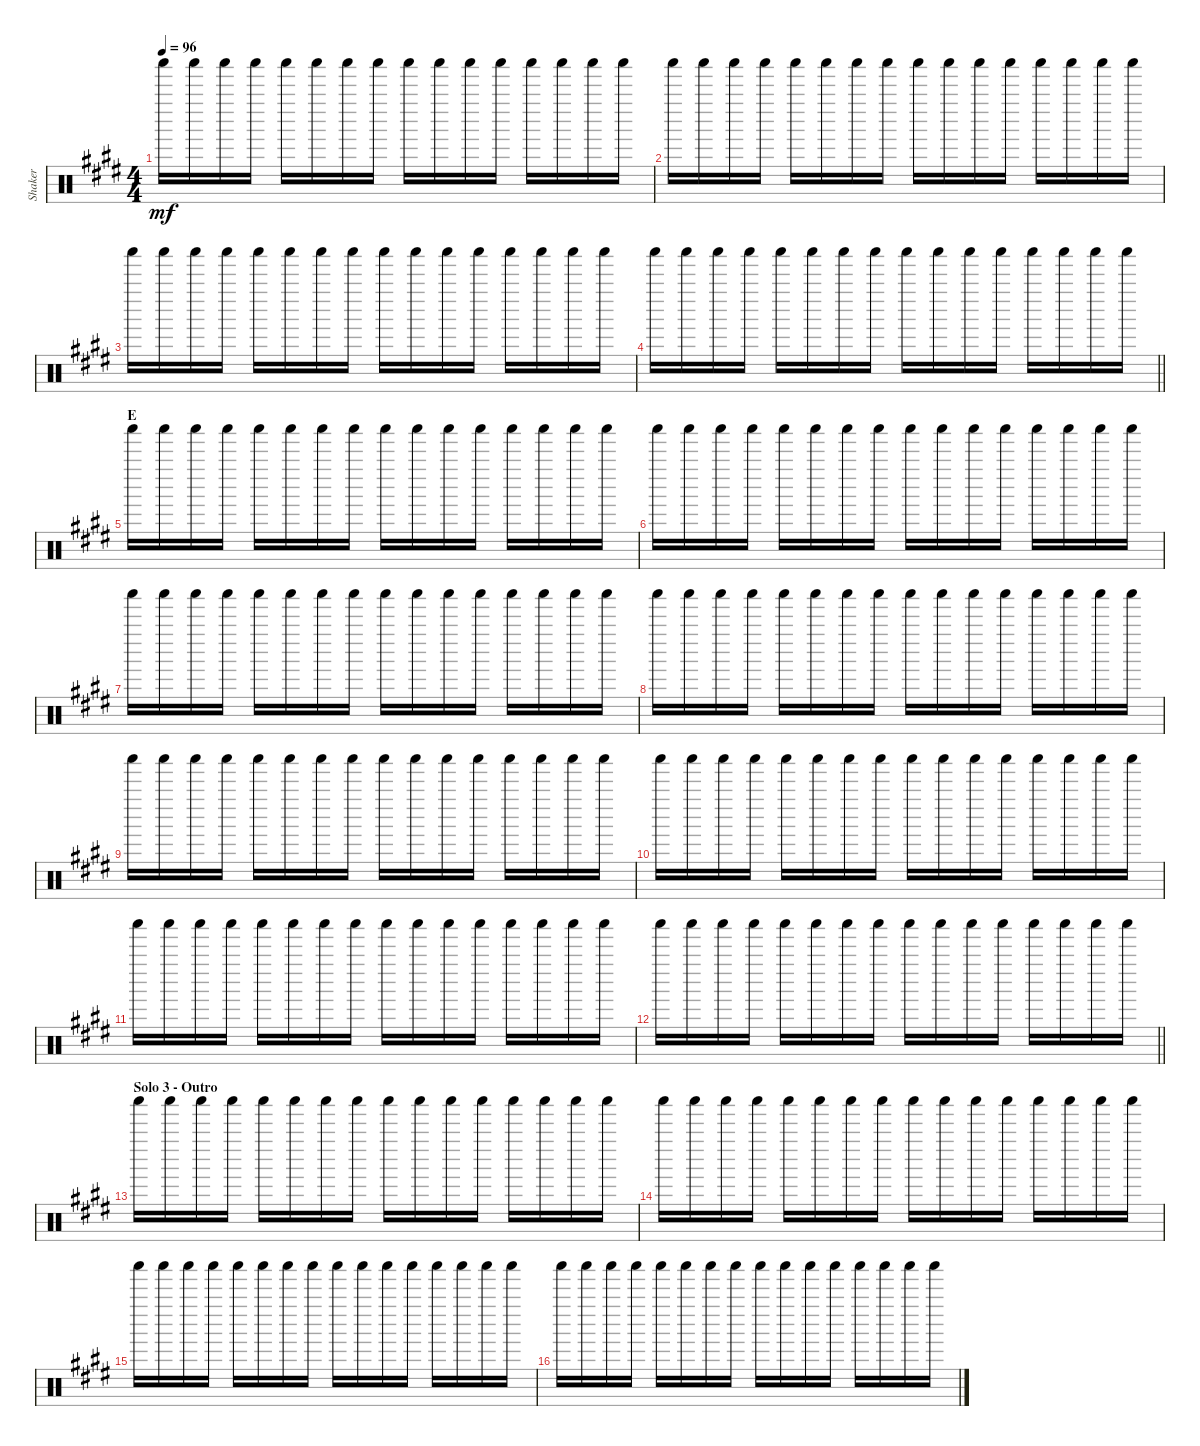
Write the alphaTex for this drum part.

\track ("Shaker" "Shaker") {instrument percussion}
\staff {score}
\articulation defaults
\ts (4 4)
\tempo 96
\clef neutral
\ks e "Shaker (hit)".16{dy mf} "Shaker (hit)".16 "Shaker (hit)".16 "Shaker (hit)".16 "Shaker (hit)".16 "Shaker (hit)".16 "Shaker (hit)".16 "Shaker (hit)".16 "Shaker (hit)".16 "Shaker (hit)".16 "Shaker (hit)".16 "Shaker (hit)".16 "Shaker (hit)".16 "Shaker (hit)".16 "Shaker (hit)".16 "Shaker (hit)".16
|
"Shaker (hit)".16 "Shaker (hit)".16 "Shaker (hit)".16 "Shaker (hit)".16 "Shaker (hit)".16 "Shaker (hit)".16 "Shaker (hit)".16 "Shaker (hit)".16 "Shaker (hit)".16 "Shaker (hit)".16 "Shaker (hit)".16 "Shaker (hit)".16 "Shaker (hit)".16 "Shaker (hit)".16 "Shaker (hit)".16 "Shaker (hit)".16 |
"Shaker (hit)".16 "Shaker (hit)".16 "Shaker (hit)".16 "Shaker (hit)".16 "Shaker (hit)".16 "Shaker (hit)".16 "Shaker (hit)".16 "Shaker (hit)".16 "Shaker (hit)".16 "Shaker (hit)".16 "Shaker (hit)".16 "Shaker (hit)".16 "Shaker (hit)".16 "Shaker (hit)".16 "Shaker (hit)".16 "Shaker (hit)".16 |
\barLineRight lightlight "Shaker (hit)".16 "Shaker (hit)".16 "Shaker (hit)".16 "Shaker (hit)".16 "Shaker (hit)".16 "Shaker (hit)".16 "Shaker (hit)".16 "Shaker (hit)".16 "Shaker (hit)".16 "Shaker (hit)".16 "Shaker (hit)".16 "Shaker (hit)".16 "Shaker (hit)".16 "Shaker (hit)".16 "Shaker (hit)".16 "Shaker (hit)".16
|
\section ("" "E")
"Shaker (hit)".16 "Shaker (hit)".16 "Shaker (hit)".16 "Shaker (hit)".16 "Shaker (hit)".16 "Shaker (hit)".16 "Shaker (hit)".16 "Shaker (hit)".16 "Shaker (hit)".16 "Shaker (hit)".16 "Shaker (hit)".16 "Shaker (hit)".16 "Shaker (hit)".16 "Shaker (hit)".16 "Shaker (hit)".16 "Shaker (hit)".16 |
"Shaker (hit)".16 "Shaker (hit)".16 "Shaker (hit)".16 "Shaker (hit)".16 "Shaker (hit)".16 "Shaker (hit)".16 "Shaker (hit)".16 "Shaker (hit)".16 "Shaker (hit)".16 "Shaker (hit)".16 "Shaker (hit)".16 "Shaker (hit)".16 "Shaker (hit)".16 "Shaker (hit)".16 "Shaker (hit)".16 "Shaker (hit)".16 |
"Shaker (hit)".16 "Shaker (hit)".16 "Shaker (hit)".16 "Shaker (hit)".16 "Shaker (hit)".16 "Shaker (hit)".16 "Shaker (hit)".16 "Shaker (hit)".16 "Shaker (hit)".16 "Shaker (hit)".16 "Shaker (hit)".16 "Shaker (hit)".16 "Shaker (hit)".16 "Shaker (hit)".16 "Shaker (hit)".16 "Shaker (hit)".16 |
"Shaker (hit)".16 "Shaker (hit)".16 "Shaker (hit)".16 "Shaker (hit)".16 "Shaker (hit)".16 "Shaker (hit)".16 "Shaker (hit)".16 "Shaker (hit)".16 "Shaker (hit)".16 "Shaker (hit)".16 "Shaker (hit)".16 "Shaker (hit)".16 "Shaker (hit)".16 "Shaker (hit)".16 "Shaker (hit)".16 "Shaker (hit)".16 |
"Shaker (hit)".16 "Shaker (hit)".16 "Shaker (hit)".16 "Shaker (hit)".16 "Shaker (hit)".16 "Shaker (hit)".16 "Shaker (hit)".16 "Shaker (hit)".16 "Shaker (hit)".16 "Shaker (hit)".16 "Shaker (hit)".16 "Shaker (hit)".16 "Shaker (hit)".16 "Shaker (hit)".16 "Shaker (hit)".16 "Shaker (hit)".16 |
"Shaker (hit)".16 "Shaker (hit)".16 "Shaker (hit)".16 "Shaker (hit)".16 "Shaker (hit)".16 "Shaker (hit)".16 "Shaker (hit)".16 "Shaker (hit)".16 "Shaker (hit)".16 "Shaker (hit)".16 "Shaker (hit)".16 "Shaker (hit)".16 "Shaker (hit)".16 "Shaker (hit)".16 "Shaker (hit)".16 "Shaker (hit)".16 |
"Shaker (hit)".16 "Shaker (hit)".16 "Shaker (hit)".16 "Shaker (hit)".16 "Shaker (hit)".16 "Shaker (hit)".16 "Shaker (hit)".16 "Shaker (hit)".16 "Shaker (hit)".16 "Shaker (hit)".16 "Shaker (hit)".16 "Shaker (hit)".16 "Shaker (hit)".16 "Shaker (hit)".16 "Shaker (hit)".16 "Shaker (hit)".16 |
\barLineRight lightlight "Shaker (hit)".16 "Shaker (hit)".16 "Shaker (hit)".16 "Shaker (hit)".16 "Shaker (hit)".16 "Shaker (hit)".16 "Shaker (hit)".16 "Shaker (hit)".16 "Shaker (hit)".16 "Shaker (hit)".16 "Shaker (hit)".16 "Shaker (hit)".16 "Shaker (hit)".16 "Shaker (hit)".16 "Shaker (hit)".16 "Shaker (hit)".16
|
\section ("" "Solo 3 - Outro")
"Shaker (hit)".16 "Shaker (hit)".16 "Shaker (hit)".16 "Shaker (hit)".16 "Shaker (hit)".16 "Shaker (hit)".16 "Shaker (hit)".16 "Shaker (hit)".16 "Shaker (hit)".16 "Shaker (hit)".16 "Shaker (hit)".16 "Shaker (hit)".16 "Shaker (hit)".16 "Shaker (hit)".16 "Shaker (hit)".16 "Shaker (hit)".16 |
"Shaker (hit)".16 "Shaker (hit)".16 "Shaker (hit)".16 "Shaker (hit)".16 "Shaker (hit)".16 "Shaker (hit)".16 "Shaker (hit)".16 "Shaker (hit)".16 "Shaker (hit)".16 "Shaker (hit)".16 "Shaker (hit)".16 "Shaker (hit)".16 "Shaker (hit)".16 "Shaker (hit)".16 "Shaker (hit)".16 "Shaker (hit)".16 |
"Shaker (hit)".16 "Shaker (hit)".16 "Shaker (hit)".16 "Shaker (hit)".16 "Shaker (hit)".16 "Shaker (hit)".16 "Shaker (hit)".16 "Shaker (hit)".16 "Shaker (hit)".16 "Shaker (hit)".16 "Shaker (hit)".16 "Shaker (hit)".16 "Shaker (hit)".16 "Shaker (hit)".16 "Shaker (hit)".16 "Shaker (hit)".16 |
"Shaker (hit)".16 "Shaker (hit)".16 "Shaker (hit)".16 "Shaker (hit)".16 "Shaker (hit)".16 "Shaker (hit)".16 "Shaker (hit)".16 "Shaker (hit)".16 "Shaker (hit)".16 "Shaker (hit)".16 "Shaker (hit)".16 "Shaker (hit)".16 "Shaker (hit)".16 "Shaker (hit)".16 "Shaker (hit)".16 "Shaker (hit)".16
